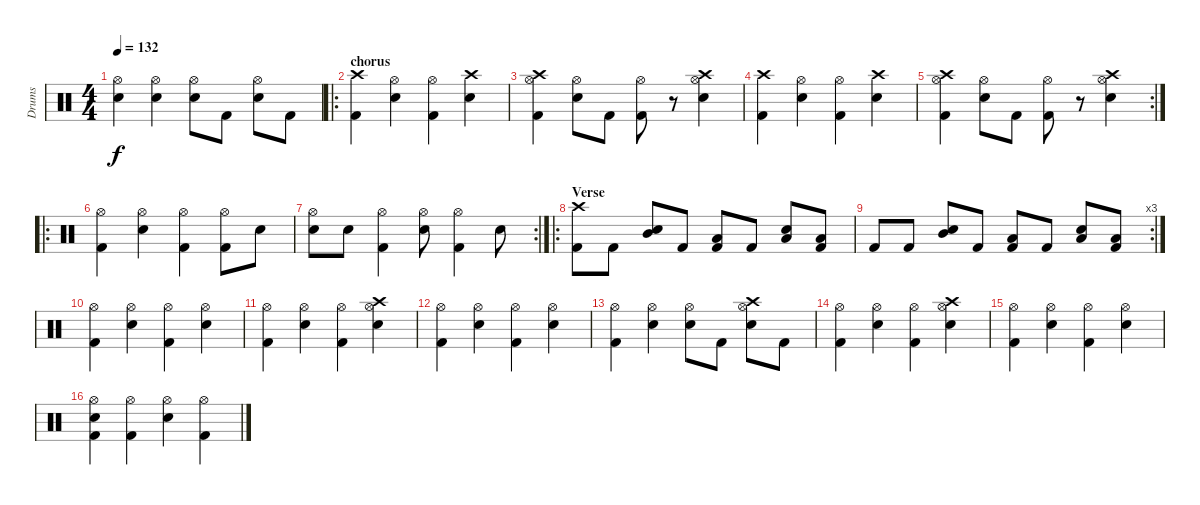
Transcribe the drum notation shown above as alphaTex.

\track ("Drums" "Drums") {instrument percussion}
\staff {score}
\articulation defaults
\ts (4 4)
\tempo 132
\clef neutral
\ks c
("Hi-Hat (open)" "Snare (hit) 2").4{dy f} ("Hi-Hat (open)" "Snare (hit) 2").4 ("Hi-Hat (open)" "Snare (hit) 2").8 "Kick (hit) 2".8 ("Hi-Hat (open)" "Snare (hit) 2").8 "Kick (hit) 2".8 |
\ro
\section ("" "chorus")
("Crash high (hit)" "Kick (hit) 2").4 ("Hi-Hat (open)" "Snare (hit) 2").4 ("Hi-Hat (open)" "Kick (hit) 2").4 ("Crash high (hit)" "Snare (hit) 2").4 |
("Hi-Hat (open)" "Crash high (hit)" "Kick (hit) 2").4 ("Hi-Hat (open)" "Snare (hit) 2").8 "Kick (hit) 2".8 ("Hi-Hat (open)" "Kick (hit) 2").8 r.8 ("Crash high (hit)" "Hi-Hat (open)" "Snare (hit) 2").4 |
("Crash high (hit)" "Kick (hit) 2").4 ("Hi-Hat (open)" "Snare (hit) 2").4 ("Hi-Hat (open)" "Kick (hit) 2").4 ("Crash high (hit)" "Snare (hit) 2").4 |
\rc 2
("Hi-Hat (open)" "Crash high (hit)" "Kick (hit) 2").4 ("Hi-Hat (open)" "Snare (hit) 2").8 "Kick (hit) 2".8 ("Hi-Hat (open)" "Kick (hit) 2").8 r.8 ("Crash high (hit)" "Hi-Hat (open)" "Snare (hit) 2").4 |
\ro
("Hi-Hat (open)" "Kick (hit) 2").4 ("Hi-Hat (open)" "Snare (hit) 2").4 ("Hi-Hat (open)" "Kick (hit) 2").4 ("Hi-Hat (open)" "Kick (hit) 2").8 "Snare (hit) 2".8 |
\rc 2
("Snare (hit) 2" "Hi-Hat (open)").8 "Snare (hit) 2".8 ("Hi-Hat (open)" "Kick (hit) 2").4 ("Snare (hit) 2" "Hi-Hat (open)").8 ("Hi-Hat (open)" "Kick (hit) 2").4 "Snare (hit) 2".8 |
\ro
\section ("" "Verse")
("Crash high (hit)" "Kick (hit) 2").8 "Kick (hit) 2".8 ("Mid Tom (hit)" "Snare (hit) 2").8 "Kick (hit) 2".8 ("Low Tom (hit)" "Kick (hit) 2").8 "Kick (hit) 2".8 ("Low Floor Tom (hit)" "Snare (hit) 2").8 ("Low Floor Tom (hit)" "Kick (hit) 2").8 |
\rc 3 "Kick (hit) 2".8 "Kick (hit) 2".8
("Mid Tom (hit)" "Snare (hit) 2").8 "Kick (hit) 2".8 ("Low Tom (hit)" "Kick (hit) 2").8 "Kick (hit) 2".8 ("Low Floor Tom (hit)" "Snare (hit) 2").8 ("Low Floor Tom (hit)" "Kick (hit) 2").8 |
("Hi-Hat (open)" "Kick (hit) 2").4 ("Hi-Hat (open)" "Snare (hit) 2").4 ("Hi-Hat (open)" "Kick (hit) 2").4 ("Hi-Hat (open)" "Snare (hit) 2").4 |
("Hi-Hat (open)" "Kick (hit) 2").4 ("Hi-Hat (open)" "Snare (hit) 2").4 ("Hi-Hat (open)" "Kick (hit) 2").4 ("Hi-Hat (open)" "Crash high (hit)" "Snare (hit) 2").4 |
("Hi-Hat (open)" "Kick (hit) 2").4 ("Hi-Hat (open)" "Snare (hit) 2").4 ("Hi-Hat (open)" "Kick (hit) 2").4 ("Hi-Hat (open)" "Snare (hit) 2").4 |
("Hi-Hat (open)" "Kick (hit) 2").4 ("Hi-Hat (open)" "Snare (hit) 2").4 ("Hi-Hat (open)" "Snare (hit) 2").8 "Kick (hit) 2".8 ("Hi-Hat (open)" "Crash high (hit)" "Snare (hit) 2").8 "Kick (hit) 2".8 |
("Hi-Hat (open)" "Kick (hit) 2").4 ("Hi-Hat (open)" "Snare (hit) 2").4 ("Hi-Hat (open)" "Kick (hit) 2").4 ("Hi-Hat (open)" "Crash high (hit)" "Snare (hit) 2").4 |
("Hi-Hat (open)" "Kick (hit) 2").4 ("Hi-Hat (open)" "Snare (hit) 2").4 ("Hi-Hat (open)" "Kick (hit) 2").4 ("Hi-Hat (open)" "Snare (hit) 2").4 |
("Hi-Hat (open)" "Snare (hit) 2" "Kick (hit) 2").4 ("Hi-Hat (open)" "Kick (hit) 2").4 ("Hi-Hat (open)" "Snare (hit) 2").4 ("Hi-Hat (open)" "Kick (hit) 2").4
